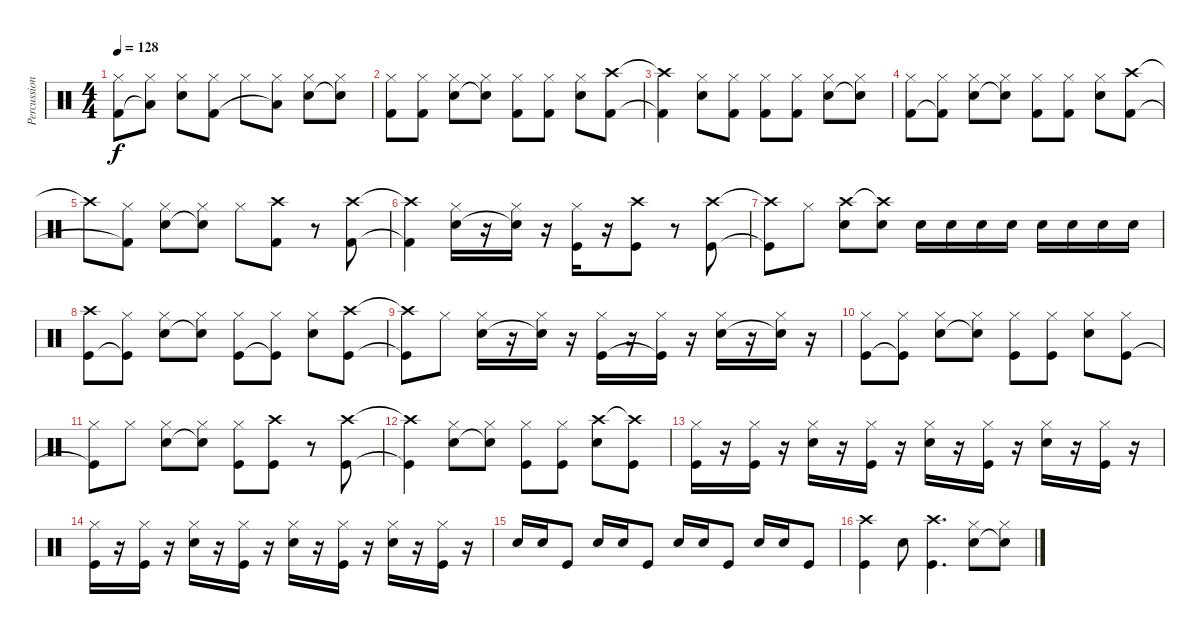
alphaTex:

\track ("Percussion" "Percussion") {instrument percussion}
\staff {score}
\articulation defaults
\ts (4 4)
\tempo 128
\clef neutral
\ks c
("Hi-Hat (closed)" "Kick (hit) 2").8{dy f} ("Hi-Hat (closed)" "Low Floor Tom (hit)"{t}).8 ("Hi-Hat (closed)" "Snare (hit) 2").8 ("Hi-Hat (closed)" "Kick (hit) 2").8 "Hi-Hat (closed)".8 ("Hi-Hat (closed)" "Low Floor Tom (hit)"{t}).8 ("Hi-Hat (closed)" "Snare (hit) 2").8 ("Hi-Hat (closed)" "Electric Snare (hit)"{t}).8 |
("Hi-Hat (closed)" "Kick (hit) 2").8 ("Hi-Hat (closed)" "Kick (hit) 2").8 ("Hi-Hat (closed)" "Snare (hit) 2").8 ("Hi-Hat (closed)" "Snare (hit)"{t}).8 ("Hi-Hat (closed)" "Kick (hit) 2").8 ("Hi-Hat (closed)" "Kick (hit) 2").8 ("Hi-Hat (closed)" "Snare (hit) 2").8 ("Crash high (hit)" "Kick (hit) 2").8 |
("Crash high (hit)"{t} "Kick (hit) 2"{t}).4 ("Hi-Hat (closed)" "Snare (hit) 2").8 ("Hi-Hat (closed)" "Kick (hit) 2").8 ("Hi-Hat (closed)" "Kick (hit) 2").8 ("Hi-Hat (closed)" "Kick (hit) 2").8 ("Hi-Hat (closed)" "Snare (hit) 2").8 ("Hi-Hat (closed)" "Electric Snare (hit)"{t}).8 |
("Hi-Hat (closed)" "Kick (hit) 2").8 ("Hi-Hat (closed)" "Kick (hit) 2"{t}).8 ("Hi-Hat (closed)" "Snare (hit) 2").8 ("Hi-Hat (closed)" "Snare (hit)"{t}).8 ("Hi-Hat (closed)" "Kick (hit) 2").8 ("Hi-Hat (closed)" "Kick (hit) 2").8 ("Hi-Hat (closed)" "Snare (hit) 2").8 ("Crash high (hit)" "Kick (hit) 2").8 |
"Crash high (hit)"{t}.8 ("Hi-Hat (closed)" "Kick (hit) 2"{t}).8 ("Hi-Hat (closed)" "Snare (hit) 2").8 ("Hi-Hat (closed)" "Electric Snare (hit)"{t}).8 "Hi-Hat (closed)".8 ("Crash high (hit)" "Kick (hit) 2").8 r.8 ("Crash high (hit)" "Kick (hit) 2").8 |
("Crash high (hit)"{t} "Kick (hit) 2"{t}).4 ("Hi-Hat (closed)" "Snare (hit) 2").16 r.16 ("Hi-Hat (closed)" "Snare (hit) 2"{t}).16 r.16 ("Hi-Hat (closed)" "Kick (hit)").16 r.16 ("Crash high (hit)" "Kick (hit)").8 r.8 ("Crash high (hit)" "Kick (hit)").8 |
("Crash high (hit)"{t} "Kick (hit)"{t}).8 "Hi-Hat (closed)".8 ("Crash high (hit)" "Snare (hit) 2").8 ("Crash high (hit)"{t} "Snare (hit) 2").8 "Snare (hit) 2".16 "Snare (hit) 2".16 "Snare (hit) 2".16 "Snare (hit) 2".16 "Snare (hit) 2".16 "Snare (hit) 2".16 "Snare (hit) 2".16 "Snare (hit) 2".16 |
("Crash high (hit)" "Kick (hit)").8 ("Hi-Hat (closed)" "Kick (hit)"{t}).8 ("Hi-Hat (closed)" "Snare (hit) 2").8 ("Hi-Hat (closed)" "Snare (hit) 2"{t}).8 ("Hi-Hat (closed)" "Kick (hit)").8 ("Hi-Hat (closed)" "Kick (hit)"{t}).8 ("Hi-Hat (closed)" "Snare (hit) 2").8 ("Crash high (hit)" "Kick (hit)").8 |
("Crash high (hit)"{t} "Kick (hit)"{t}).8 "Hi-Hat (closed)".8 ("Hi-Hat (closed)" "Snare (hit) 2").16 r.16 ("Hi-Hat (closed)" "Snare (hit) 2"{t}).16 r.16 ("Hi-Hat (closed)" "Kick (hit)").16 r.16 ("Hi-Hat (closed)" "Kick (hit)"{t}).16 r.16 ("Hi-Hat (closed)" "Snare (hit) 2").16 r.16 ("Hi-Hat (closed)" "Snare (hit) 2"{t}).16 r.16 |
("Hi-Hat (closed)" "Kick (hit)").8 ("Hi-Hat (closed)" "Kick (hit)"{t}).8 ("Hi-Hat (closed)" "Snare (hit) 2").8 ("Hi-Hat (closed)" "Snare (hit) 2"{t}).8 ("Hi-Hat (closed)" "Kick (hit)").8 ("Hi-Hat (closed)" "Kick (hit)").8 ("Hi-Hat (closed)" "Snare (hit) 2").8 ("Hi-Hat (closed)" "Kick (hit)").8 |
("Hi-Hat (closed)" "Kick (hit)"{t}).8 "Hi-Hat (closed)".8 ("Hi-Hat (closed)" "Snare (hit) 2").8 ("Hi-Hat (closed)" "Snare (hit) 2"{t}).8 ("Hi-Hat (closed)" "Kick (hit)").8 ("Crash high (hit)" "Kick (hit)").8 r.8 ("Crash high (hit)" "Kick (hit)").8 |
("Crash high (hit)"{t} "Kick (hit)"{t}).4 ("Hi-Hat (closed)" "Snare (hit) 2").8 ("Hi-Hat (closed)" "Snare (hit) 2"{t}).8 ("Hi-Hat (closed)" "Kick (hit)").8 ("Hi-Hat (closed)" "Kick (hit)").8 ("Crash high (hit)" "Snare (hit) 2").8 ("Crash high (hit)"{t} "Kick (hit)").8 |
("Hi-Hat (closed)" "Kick (hit)").16 r.16 ("Hi-Hat (closed)" "Kick (hit)").16 r.16 ("Hi-Hat (closed)" "Snare (hit) 2").16 r.16 ("Hi-Hat (closed)" "Kick (hit)").16 r.16 ("Hi-Hat (closed)" "Snare (hit) 2").16 r.16 ("Hi-Hat (closed)" "Kick (hit)").16 r.16 ("Hi-Hat (closed)" "Snare (hit) 2").16 r.16 ("Hi-Hat (closed)" "Kick (hit)").16 r.16 |
("Hi-Hat (closed)" "Kick (hit)").16 r.16 ("Hi-Hat (closed)" "Kick (hit)").16 r.16 ("Hi-Hat (closed)" "Snare (hit) 2").16 r.16 ("Hi-Hat (closed)" "Kick (hit)").16 r.16 ("Hi-Hat (closed)" "Snare (hit) 2").16 r.16 ("Hi-Hat (closed)" "Kick (hit)").16 r.16 ("Hi-Hat (closed)" "Snare (hit) 2").16 r.16 ("Hi-Hat (closed)" "Kick (hit)").16 r.16 |
"Snare (hit) 2".16 "Snare (hit) 2".16 "Kick (hit)".8 "Snare (hit) 2".16 "Snare (hit) 2".16 "Kick (hit)".8 "Snare (hit) 2".16 "Snare (hit) 2".16 "Kick (hit)".8 "Snare (hit) 2".16 "Snare (hit) 2".16 "Kick (hit)".8 |
("Crash high (hit)" "Kick (hit)").4 "Snare (hit) 2".8 ("Crash high (hit)" "Kick (hit)").4{d} ("Hi-Hat (closed)" "Snare (hit) 2").8 ("Hi-Hat (closed)" "Snare (hit) 2"{t}).8
